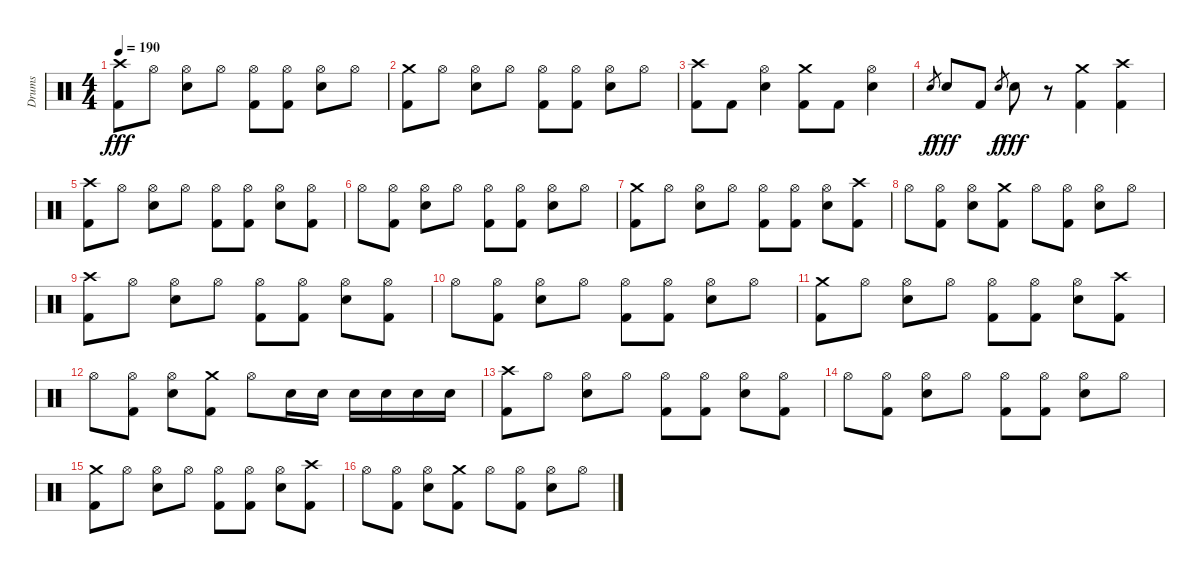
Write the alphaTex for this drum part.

\track ("Drums" "Drums") {instrument percussion}
\staff {score}
\articulation defaults
\ts (4 4)
\tempo 190
\clef neutral
\ks c
("Crash high (hit)" "Kick (hit) 2").8{dy fff} "Hi-Hat (open)".8 ("Hi-Hat (open)" "Electric Snare (hit)").8 "Hi-Hat (open)".8 ("Hi-Hat (open)" "Kick (hit) 2").8 ("Hi-Hat (open)" "Kick (hit) 2").8 ("Hi-Hat (open)" "Electric Snare (hit)").8 "Hi-Hat (open)".8 |
("Crash medium (hit)" "Kick (hit) 2").8 "Hi-Hat (open)".8 ("Hi-Hat (open)" "Electric Snare (hit)").8 "Hi-Hat (open)".8 ("Hi-Hat (open)" "Kick (hit) 2").8 ("Hi-Hat (open)" "Kick (hit) 2").8 ("Hi-Hat (open)" "Electric Snare (hit)").8 "Hi-Hat (open)".8 |
("Crash high (hit)" "Kick (hit) 2").8 "Kick (hit) 2".8 ("Hi-Hat (open)" "Electric Snare (hit)").4 ("Crash medium (hit)" "Kick (hit) 2").8 "Kick (hit) 2".8 ("Hi-Hat (open)" "Electric Snare (hit)").4 |
"Electric Snare (hit)".8{gr dy f} "Electric Snare (hit)".8{dy fff} "Kick (hit) 2".8 "Electric Snare (hit)".8{gr dy f} "Electric Snare (hit)".8{dy fff} r.8 ("Crash medium (hit)" "Kick (hit) 2").4 ("Crash high (hit)" "Kick (hit) 2").4 |
("Crash high (hit)" "Kick (hit) 2").8 "Hi-Hat (open)".8 ("Hi-Hat (open)" "Electric Snare (hit)").8 "Hi-Hat (open)".8 ("Hi-Hat (open)" "Kick (hit) 2").8 ("Hi-Hat (open)" "Kick (hit) 2").8 ("Hi-Hat (open)" "Electric Snare (hit)").8 ("Hi-Hat (open)" "Kick (hit) 2").8 |
"Hi-Hat (open)".8 ("Hi-Hat (open)" "Kick (hit) 2").8 ("Hi-Hat (open)" "Electric Snare (hit)").8 "Hi-Hat (open)".8 ("Hi-Hat (open)" "Kick (hit) 2").8 ("Hi-Hat (open)" "Kick (hit) 2").8 ("Hi-Hat (open)" "Electric Snare (hit)").8 "Hi-Hat (open)".8 |
("Crash medium (hit)" "Kick (hit) 2").8 "Hi-Hat (open)".8 ("Hi-Hat (open)" "Electric Snare (hit)").8 "Hi-Hat (open)".8 ("Hi-Hat (open)" "Kick (hit) 2").8 ("Hi-Hat (open)" "Kick (hit) 2").8 ("Hi-Hat (open)" "Electric Snare (hit)").8 ("Crash high (hit)" "Kick (hit) 2").8 |
"Hi-Hat (open)".8 ("Hi-Hat (open)" "Kick (hit) 2").8 ("Hi-Hat (open)" "Electric Snare (hit)").8 ("Crash medium (hit)" "Kick (hit) 2").8 "Hi-Hat (open)".8 ("Hi-Hat (open)" "Kick (hit) 2").8 ("Hi-Hat (open)" "Electric Snare (hit)").8 "Hi-Hat (open)".8 |
("Crash high (hit)" "Kick (hit) 2").8 "Hi-Hat (open)".8 ("Hi-Hat (open)" "Electric Snare (hit)").8 "Hi-Hat (open)".8 ("Hi-Hat (open)" "Kick (hit) 2").8 ("Hi-Hat (open)" "Kick (hit) 2").8 ("Hi-Hat (open)" "Electric Snare (hit)").8 ("Hi-Hat (open)" "Kick (hit) 2").8 |
"Hi-Hat (open)".8 ("Hi-Hat (open)" "Kick (hit) 2").8 ("Hi-Hat (open)" "Electric Snare (hit)").8 "Hi-Hat (open)".8 ("Hi-Hat (open)" "Kick (hit) 2").8 ("Hi-Hat (open)" "Kick (hit) 2").8 ("Hi-Hat (open)" "Electric Snare (hit)").8 "Hi-Hat (open)".8 |
("Crash medium (hit)" "Kick (hit) 2").8 "Hi-Hat (open)".8 ("Hi-Hat (open)" "Electric Snare (hit)").8 "Hi-Hat (open)".8 ("Hi-Hat (open)" "Kick (hit) 2").8 ("Hi-Hat (open)" "Kick (hit) 2").8 ("Hi-Hat (open)" "Electric Snare (hit)").8 ("Crash high (hit)" "Kick (hit) 2").8 |
"Hi-Hat (open)".8 ("Hi-Hat (open)" "Kick (hit) 2").8 ("Hi-Hat (open)" "Electric Snare (hit)").8 ("Crash medium (hit)" "Kick (hit) 2").8 "Hi-Hat (open)".8 "Electric Snare (hit)".16 "Electric Snare (hit)".16 "Electric Snare (hit)".16 "Electric Snare (hit)".16 "Electric Snare (hit)".16 "Electric Snare (hit)".16 |
("Crash high (hit)" "Kick (hit) 2").8 "Hi-Hat (open)".8 ("Hi-Hat (open)" "Electric Snare (hit)").8 "Hi-Hat (open)".8 ("Hi-Hat (open)" "Kick (hit) 2").8 ("Hi-Hat (open)" "Kick (hit) 2").8 ("Hi-Hat (open)" "Electric Snare (hit)").8 ("Hi-Hat (open)" "Kick (hit) 2").8 |
"Hi-Hat (open)".8 ("Hi-Hat (open)" "Kick (hit) 2").8 ("Hi-Hat (open)" "Electric Snare (hit)").8 "Hi-Hat (open)".8 ("Hi-Hat (open)" "Kick (hit) 2").8 ("Hi-Hat (open)" "Kick (hit) 2").8 ("Hi-Hat (open)" "Electric Snare (hit)").8 "Hi-Hat (open)".8 |
("Crash medium (hit)" "Kick (hit) 2").8 "Hi-Hat (open)".8 ("Hi-Hat (open)" "Electric Snare (hit)").8 "Hi-Hat (open)".8 ("Hi-Hat (open)" "Kick (hit) 2").8 ("Hi-Hat (open)" "Kick (hit) 2").8 ("Hi-Hat (open)" "Electric Snare (hit)").8 ("Crash high (hit)" "Kick (hit) 2").8 |
"Hi-Hat (open)".8 ("Hi-Hat (open)" "Kick (hit) 2").8 ("Hi-Hat (open)" "Electric Snare (hit)").8 ("Crash medium (hit)" "Kick (hit) 2").8 "Hi-Hat (open)".8 ("Hi-Hat (open)" "Kick (hit) 2").8 ("Hi-Hat (open)" "Electric Snare (hit)").8 "Hi-Hat (open)".8
